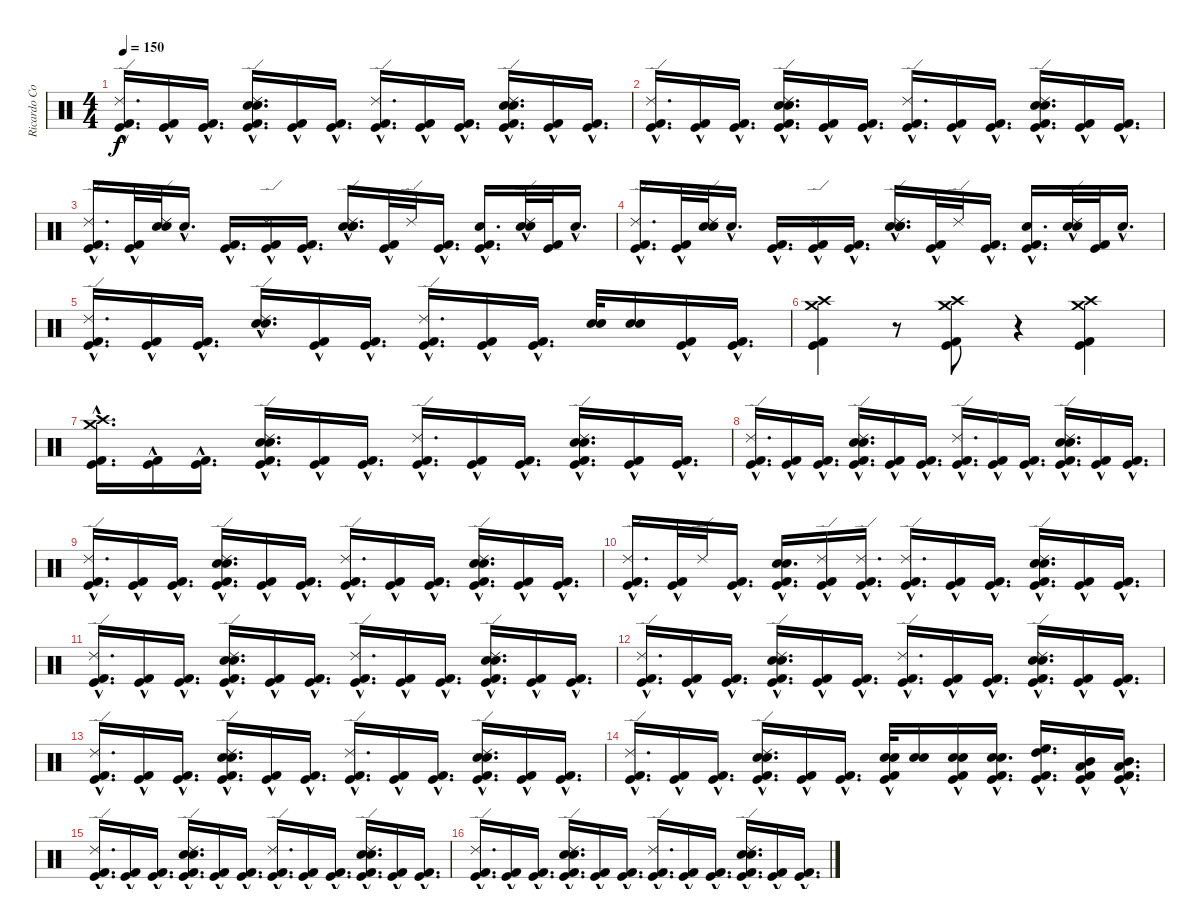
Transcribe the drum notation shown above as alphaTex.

\track ("Ricardo Confessori" "Ricardo Co") {instrument percussion}
\staff {score}
\articulation defaults
\ts (4 4)
\tempo 150
\clef neutral
\ks c
("Kick (hit) 2"{hac} "Ride (edge) 2"{hac} "Kick (hit)"{hac}).16{d dy f} ("Kick (hit) 2"{hac} "Kick (hit)"{hac}).16 ("Kick (hit) 2"{hac} "Kick (hit)"{hac}).16{d} ("Snare (hit) 2"{hac} "Electric Snare (hit)"{hac} "Kick (hit) 2"{hac} "Ride (edge) 2"{hac} "Kick (hit)"{hac}).16{d} ("Kick (hit) 2"{hac} "Kick (hit)"{hac}).16 ("Kick (hit) 2"{hac} "Kick (hit)"{hac}).16{d} ("Kick (hit) 2"{hac} "Ride (edge) 2"{hac} "Kick (hit)"{hac}).16{d} ("Kick (hit) 2"{hac} "Kick (hit)"{hac}).16 ("Kick (hit) 2"{hac} "Kick (hit)"{hac}).16{d} ("Electric Snare (hit)"{hac} "Snare (hit) 2"{hac} "Kick (hit) 2"{hac} "Ride (edge) 2"{hac} "Kick (hit)"{hac}).16{d} ("Kick (hit) 2"{hac} "Kick (hit)"{hac}).16 ("Kick (hit) 2"{hac} "Kick (hit)"{hac}).16{d} |
("Kick (hit) 2"{hac} "Ride (edge) 2"{hac} "Kick (hit)"{hac}).16{d} ("Kick (hit) 2"{hac} "Kick (hit)"{hac}).16 ("Kick (hit) 2"{hac} "Kick (hit)"{hac}).16{d} ("Snare (hit) 2"{hac} "Electric Snare (hit)"{hac} "Kick (hit) 2"{hac} "Ride (edge) 2"{hac} "Kick (hit)"{hac}).16{d} ("Kick (hit) 2"{hac} "Kick (hit)"{hac}).16 ("Kick (hit) 2"{hac} "Kick (hit)"{hac}).16{d} ("Kick (hit) 2"{hac} "Ride (edge) 2"{hac} "Kick (hit)"{hac}).16{d} ("Kick (hit) 2"{hac} "Kick (hit)"{hac}).16 ("Kick (hit) 2"{hac} "Kick (hit)"{hac}).16{d} ("Electric Snare (hit)"{hac} "Snare (hit) 2"{hac} "Kick (hit) 2"{hac} "Ride (edge) 2"{hac} "Kick (hit)"{hac}).16{d} ("Kick (hit) 2"{hac} "Kick (hit)"{hac}).16 ("Kick (hit) 2"{hac} "Kick (hit)"{hac}).16{d} |
("Ride (edge) 2" "Kick (hit) 2"{hac} "Kick (hit)"{hac}).16{d} ("Kick (hit) 2"{hac} "Kick (hit)"{hac}).32 ("Snare (hit) 2" "Electric Snare (hit)" "Ride (edge) 2").32 "Snare (hit)"{hac}.16{d} ("Kick (hit) 2"{hac} "Kick (hit)"{hac}).16{d} ("Ride (edge) 2"{hac} "Kick (hit) 2"{hac} "Kick (hit)"{hac}).16 ("Kick (hit) 2"{hac} "Kick (hit)"{hac}).16{d} ("Electric Snare (hit)" "Snare (hit) 2" "Ride (edge) 2" "Snare (hit)"{hac}).16{d} ("Kick (hit) 2"{hac} "Kick (hit)"{hac}).32 "Ride (edge) 2".32 ("Kick (hit) 2"{hac} "Kick (hit)"{hac}).16{d} ("Snare (hit)"{hac} "Kick (hit) 2" "Kick (hit)").16{d} ("Snare (hit) 2"{hac} "Electric Snare (hit)"{hac} "Ride (edge) 2"{hac}).32 ("Kick (hit) 2" "Kick (hit)").32 "Snare (hit)"{hac}.16{d} |
("Ride (edge) 2" "Kick (hit) 2"{hac} "Kick (hit)"{hac}).16{d} ("Kick (hit) 2"{hac} "Kick (hit)"{hac}).32 ("Snare (hit) 2" "Electric Snare (hit)" "Ride (edge) 2").32 "Snare (hit)"{hac}.16{d} ("Kick (hit) 2"{hac} "Kick (hit)"{hac}).16{d} ("Ride (edge) 2"{hac} "Kick (hit) 2"{hac} "Kick (hit)"{hac}).16 ("Kick (hit) 2"{hac} "Kick (hit)"{hac}).16{d} ("Electric Snare (hit)" "Snare (hit) 2" "Ride (edge) 2" "Snare (hit)"{hac}).16{d} ("Kick (hit) 2"{hac} "Kick (hit)"{hac}).32 "Ride (edge) 2".32 ("Kick (hit) 2"{hac} "Kick (hit)"{hac}).16{d} ("Snare (hit)"{hac} "Kick (hit) 2" "Kick (hit)").16{d} ("Snare (hit) 2"{hac} "Electric Snare (hit)"{hac} "Ride (edge) 2"{hac}).32 ("Kick (hit) 2" "Kick (hit)").32 "Snare (hit)"{hac}.16{d} |
("Ride (edge) 2"{hac} "Kick (hit) 2"{hac} "Kick (hit)"{hac}).16{d} ("Kick (hit) 2"{hac} "Kick (hit)"{hac}).16 ("Kick (hit) 2"{hac} "Kick (hit)"{hac}).16{d} ("Snare (hit) 2"{hac} "Electric Snare (hit)"{hac} "Ride (edge) 2"{hac}).16{d} ("Kick (hit) 2"{hac} "Kick (hit)"{hac}).16 ("Kick (hit) 2"{hac} "Kick (hit)"{hac}).16{d} ("Ride (edge) 2"{hac} "Kick (hit) 2"{hac} "Kick (hit)"{hac}).16{d} ("Kick (hit) 2"{hac} "Kick (hit)"{hac}).16 ("Kick (hit) 2"{hac} "Kick (hit)"{hac}).16{d} ("Electric Snare (hit)" "Snare (hit) 2").32 ("Electric Snare (hit)" "Snare (hit) 2").16 ("Kick (hit) 2"{hac} "Kick (hit)"{hac}).16 ("Kick (hit) 2"{hac} "Kick (hit)"{hac}).16{d} |
("Crash high (hit)" "Crash medium (hit)" "Kick (hit) 2" "Kick (hit)").4 r.8 ("Crash high (hit)" "Crash medium (hit)" "Kick (hit) 2" "Kick (hit)").8 r.4 ("Crash high (hit)" "Crash medium (hit)" "Kick (hit) 2" "Kick (hit)").4 |
("Crash high (hit)"{hac} "Crash medium (hit)"{hac} "Kick (hit) 2"{hac} "Kick (hit)"{hac}).16{d} ("Kick (hit) 2"{hac} "Kick (hit)"{hac}).16 ("Kick (hit) 2"{hac} "Kick (hit)"{hac}).16{d} ("Electric Snare (hit)"{hac} "Snare (hit) 2"{hac} "Ride (edge) 2"{hac} "Kick (hit) 2"{hac} "Kick (hit)"{hac}).16{d} ("Kick (hit) 2"{hac} "Kick (hit)"{hac}).16 ("Kick (hit) 2"{hac} "Kick (hit)"{hac}).16{d} ("Ride (edge) 2"{hac} "Kick (hit) 2"{hac} "Kick (hit)"{hac}).16{d} ("Kick (hit) 2"{hac} "Kick (hit)"{hac}).16 ("Kick (hit) 2"{hac} "Kick (hit)"{hac}).16{d} ("Snare (hit) 2"{hac} "Electric Snare (hit)"{hac} "Ride (edge) 2"{hac} "Kick (hit) 2"{hac} "Kick (hit)"{hac}).16{d} ("Kick (hit) 2"{hac} "Kick (hit)"{hac}).16 ("Kick (hit) 2"{hac} "Kick (hit)"{hac}).16{d} |
("Ride (edge) 2"{hac} "Kick (hit) 2"{hac} "Kick (hit)"{hac}).16{d} ("Kick (hit) 2"{hac} "Kick (hit)"{hac}).16 ("Kick (hit) 2"{hac} "Kick (hit)"{hac}).16{d} ("Electric Snare (hit)"{hac} "Snare (hit) 2"{hac} "Ride (edge) 2"{hac} "Kick (hit) 2"{hac} "Kick (hit)"{hac}).16{d} ("Kick (hit) 2"{hac} "Kick (hit)"{hac}).16 ("Kick (hit) 2"{hac} "Kick (hit)"{hac}).16{d} ("Ride (edge) 2"{hac} "Kick (hit) 2"{hac} "Kick (hit)"{hac}).16{d} ("Kick (hit) 2"{hac} "Kick (hit)"{hac}).16 ("Kick (hit) 2"{hac} "Kick (hit)"{hac}).16{d} ("Snare (hit) 2"{hac} "Electric Snare (hit)"{hac} "Ride (edge) 2"{hac} "Kick (hit) 2"{hac} "Kick (hit)"{hac}).16{d} ("Kick (hit) 2"{hac} "Kick (hit)"{hac}).16 ("Kick (hit) 2"{hac} "Kick (hit)"{hac}).16{d} |
("Ride (edge) 2"{hac} "Kick (hit) 2"{hac} "Kick (hit)"{hac}).16{d} ("Kick (hit) 2"{hac} "Kick (hit)"{hac}).16 ("Kick (hit) 2"{hac} "Kick (hit)"{hac}).16{d} ("Electric Snare (hit)"{hac} "Snare (hit) 2"{hac} "Ride (edge) 2"{hac} "Kick (hit) 2"{hac} "Kick (hit)"{hac}).16{d} ("Kick (hit) 2"{hac} "Kick (hit)"{hac}).16 ("Kick (hit) 2"{hac} "Kick (hit)"{hac}).16{d} ("Ride (edge) 2"{hac} "Kick (hit) 2"{hac} "Kick (hit)"{hac}).16{d} ("Kick (hit) 2"{hac} "Kick (hit)"{hac}).16 ("Kick (hit) 2"{hac} "Kick (hit)"{hac}).16{d} ("Snare (hit) 2"{hac} "Electric Snare (hit)"{hac} "Ride (edge) 2"{hac} "Kick (hit) 2"{hac} "Kick (hit)"{hac}).16{d} ("Kick (hit) 2"{hac} "Kick (hit)"{hac}).16 ("Kick (hit) 2"{hac} "Kick (hit)"{hac}).16{d} |
("Ride (edge) 2"{hac} "Kick (hit) 2"{hac} "Kick (hit)"{hac}).16{d} ("Kick (hit) 2"{hac} "Kick (hit)"{hac}).32 "Ride (edge) 2".32 ("Kick (hit) 2"{hac} "Kick (hit)"{hac}).16{d} ("Electric Snare (hit)"{hac} "Snare (hit) 2"{hac} "Kick (hit) 2"{hac} "Kick (hit)"{hac}).16{d} ("Ride (edge) 2"{hac} "Kick (hit) 2"{hac} "Kick (hit)"{hac}).16 ("Ride (edge) 2"{hac} "Kick (hit) 2"{hac} "Kick (hit)"{hac}).16{d} ("Ride (edge) 2"{hac} "Kick (hit) 2"{hac} "Kick (hit)"{hac}).16{d} ("Kick (hit) 2"{hac} "Kick (hit)"{hac}).16 ("Kick (hit) 2"{hac} "Kick (hit)"{hac}).16{d} ("Snare (hit) 2"{hac} "Electric Snare (hit)"{hac} "Ride (edge) 2"{hac} "Kick (hit) 2"{hac} "Kick (hit)"{hac}).16{d} ("Kick (hit) 2"{hac} "Kick (hit)"{hac}).16 ("Kick (hit) 2"{hac} "Kick (hit)"{hac}).16{d} |
("Ride (edge) 2"{hac} "Kick (hit) 2"{hac} "Kick (hit)"{hac}).16{d} ("Kick (hit) 2"{hac} "Kick (hit)"{hac}).16 ("Kick (hit) 2"{hac} "Kick (hit)"{hac}).16{d} ("Electric Snare (hit)"{hac} "Snare (hit) 2"{hac} "Ride (edge) 2"{hac} "Kick (hit) 2"{hac} "Kick (hit)"{hac}).16{d} ("Kick (hit) 2"{hac} "Kick (hit)"{hac}).16 ("Kick (hit) 2"{hac} "Kick (hit)"{hac}).16{d} ("Ride (edge) 2"{hac} "Kick (hit) 2"{hac} "Kick (hit)"{hac}).16{d} ("Kick (hit) 2"{hac} "Kick (hit)"{hac}).16 ("Kick (hit) 2"{hac} "Kick (hit)"{hac}).16{d} ("Snare (hit) 2"{hac} "Electric Snare (hit)"{hac} "Ride (edge) 2"{hac} "Kick (hit) 2"{hac} "Kick (hit)"{hac}).16{d} ("Kick (hit) 2"{hac} "Kick (hit)"{hac}).16 ("Kick (hit) 2"{hac} "Kick (hit)"{hac}).16{d} |
("Ride (edge) 2"{hac} "Kick (hit) 2"{hac} "Kick (hit)"{hac}).16{d} ("Kick (hit) 2"{hac} "Kick (hit)"{hac}).16 ("Kick (hit) 2"{hac} "Kick (hit)"{hac}).16{d} ("Electric Snare (hit)"{hac} "Snare (hit) 2"{hac} "Ride (edge) 2"{hac} "Kick (hit) 2"{hac} "Kick (hit)"{hac}).16{d} ("Kick (hit) 2"{hac} "Kick (hit)"{hac}).16 ("Kick (hit) 2"{hac} "Kick (hit)"{hac}).16{d} ("Ride (edge) 2"{hac} "Kick (hit) 2"{hac} "Kick (hit)"{hac}).16{d} ("Kick (hit) 2"{hac} "Kick (hit)"{hac}).16 ("Kick (hit) 2"{hac} "Kick (hit)"{hac}).16{d} ("Snare (hit) 2"{hac} "Electric Snare (hit)"{hac} "Ride (edge) 2"{hac} "Kick (hit) 2"{hac} "Kick (hit)"{hac}).16{d} ("Kick (hit) 2"{hac} "Kick (hit)"{hac}).16 ("Kick (hit) 2"{hac} "Kick (hit)"{hac}).16{d} |
("Ride (edge) 2"{hac} "Kick (hit) 2"{hac} "Kick (hit)"{hac}).16{d} ("Kick (hit) 2"{hac} "Kick (hit)"{hac}).16 ("Kick (hit) 2"{hac} "Kick (hit)"{hac}).16{d} ("Electric Snare (hit)"{hac} "Snare (hit) 2"{hac} "Ride (edge) 2"{hac} "Kick (hit) 2"{hac} "Kick (hit)"{hac}).16{d} ("Kick (hit) 2"{hac} "Kick (hit)"{hac}).16 ("Kick (hit) 2"{hac} "Kick (hit)"{hac}).16{d} ("Ride (edge) 2"{hac} "Kick (hit) 2"{hac} "Kick (hit)"{hac}).16{d} ("Kick (hit) 2"{hac} "Kick (hit)"{hac}).16 ("Kick (hit) 2"{hac} "Kick (hit)"{hac}).16{d} ("Snare (hit) 2"{hac} "Electric Snare (hit)"{hac} "Ride (edge) 2"{hac} "Kick (hit) 2"{hac} "Kick (hit)"{hac}).16{d} ("Kick (hit) 2"{hac} "Kick (hit)"{hac}).16 ("Kick (hit) 2"{hac} "Kick (hit)"{hac}).16{d} |
("Ride (edge) 2"{hac} "Kick (hit) 2"{hac} "Kick (hit)"{hac}).16{d} ("Kick (hit) 2"{hac} "Kick (hit)"{hac}).16 ("Kick (hit) 2"{hac} "Kick (hit)"{hac}).16{d} ("Electric Snare (hit)"{hac} "Snare (hit) 2"{hac} "Ride (edge) 2"{hac} "Kick (hit) 2"{hac} "Kick (hit)"{hac}).16{d} ("Kick (hit) 2"{hac} "Kick (hit)"{hac}).16 ("Kick (hit) 2"{hac} "Kick (hit)"{hac}).16{d} ("Snare (hit) 2" "Kick (hit) 2"{hac} "Kick (hit)"{hac} "Electric Snare (hit)").32 ("Snare (hit) 2" "Electric Snare (hit)").16 ("Electric Snare (hit)"{hac} "Snare (hit) 2"{hac} "Kick (hit) 2"{hac} "Kick (hit)"{hac}).16 ("Electric Snare (hit)"{hac} "Snare (hit) 2"{hac} "Kick (hit) 2"{hac} "Kick (hit)"{hac}).16{d} ("High Floor Tom (hit)"{hac} "High Tom (hit)"{hac} "Kick (hit) 2"{hac} "Kick (hit)"{hac}).16{d} ("Low Tom (hit)"{hac} "Mid Tom (hit)"{hac} "Kick (hit) 2"{hac} "Kick (hit)"{hac}).16 ("Low Tom (hit)"{hac} "Mid Tom (hit)"{hac} "Kick (hit) 2"{hac} "Kick (hit)"{hac}).16{d} |
("Ride (edge) 2"{hac} "Kick (hit) 2"{hac} "Kick (hit)"{hac}).16{d} ("Kick (hit) 2"{hac} "Kick (hit)"{hac}).16 ("Kick (hit) 2"{hac} "Kick (hit)"{hac}).16{d} ("Electric Snare (hit)"{hac} "Snare (hit) 2"{hac} "Ride (edge) 2"{hac} "Kick (hit) 2"{hac} "Kick (hit)"{hac}).16{d} ("Kick (hit) 2"{hac} "Kick (hit)"{hac}).16 ("Kick (hit) 2"{hac} "Kick (hit)"{hac}).16{d} ("Ride (edge) 2"{hac} "Kick (hit) 2"{hac} "Kick (hit)"{hac}).16{d} ("Kick (hit) 2"{hac} "Kick (hit)"{hac}).16 ("Kick (hit) 2"{hac} "Kick (hit)"{hac}).16{d} ("Snare (hit) 2"{hac} "Electric Snare (hit)"{hac} "Ride (edge) 2"{hac} "Kick (hit) 2"{hac} "Kick (hit)"{hac}).16{d} ("Kick (hit) 2"{hac} "Kick (hit)"{hac}).16 ("Kick (hit) 2"{hac} "Kick (hit)"{hac}).16{d} |
("Ride (edge) 2"{hac} "Kick (hit) 2"{hac} "Kick (hit)"{hac}).16{d} ("Kick (hit) 2"{hac} "Kick (hit)"{hac}).16 ("Kick (hit) 2"{hac} "Kick (hit)"{hac}).16{d} ("Electric Snare (hit)"{hac} "Snare (hit) 2"{hac} "Ride (edge) 2"{hac} "Kick (hit) 2"{hac} "Kick (hit)"{hac}).16{d} ("Kick (hit) 2"{hac} "Kick (hit)"{hac}).16 ("Kick (hit) 2"{hac} "Kick (hit)"{hac}).16{d} ("Ride (edge) 2"{hac} "Kick (hit) 2"{hac} "Kick (hit)"{hac}).16{d} ("Kick (hit) 2"{hac} "Kick (hit)"{hac}).16 ("Kick (hit) 2"{hac} "Kick (hit)"{hac}).16{d} ("Snare (hit) 2"{hac} "Electric Snare (hit)"{hac} "Ride (edge) 2"{hac} "Kick (hit) 2"{hac} "Kick (hit)"{hac}).16{d} ("Kick (hit) 2"{hac} "Kick (hit)"{hac}).16 ("Kick (hit) 2"{hac} "Kick (hit)"{hac}).16{d}
